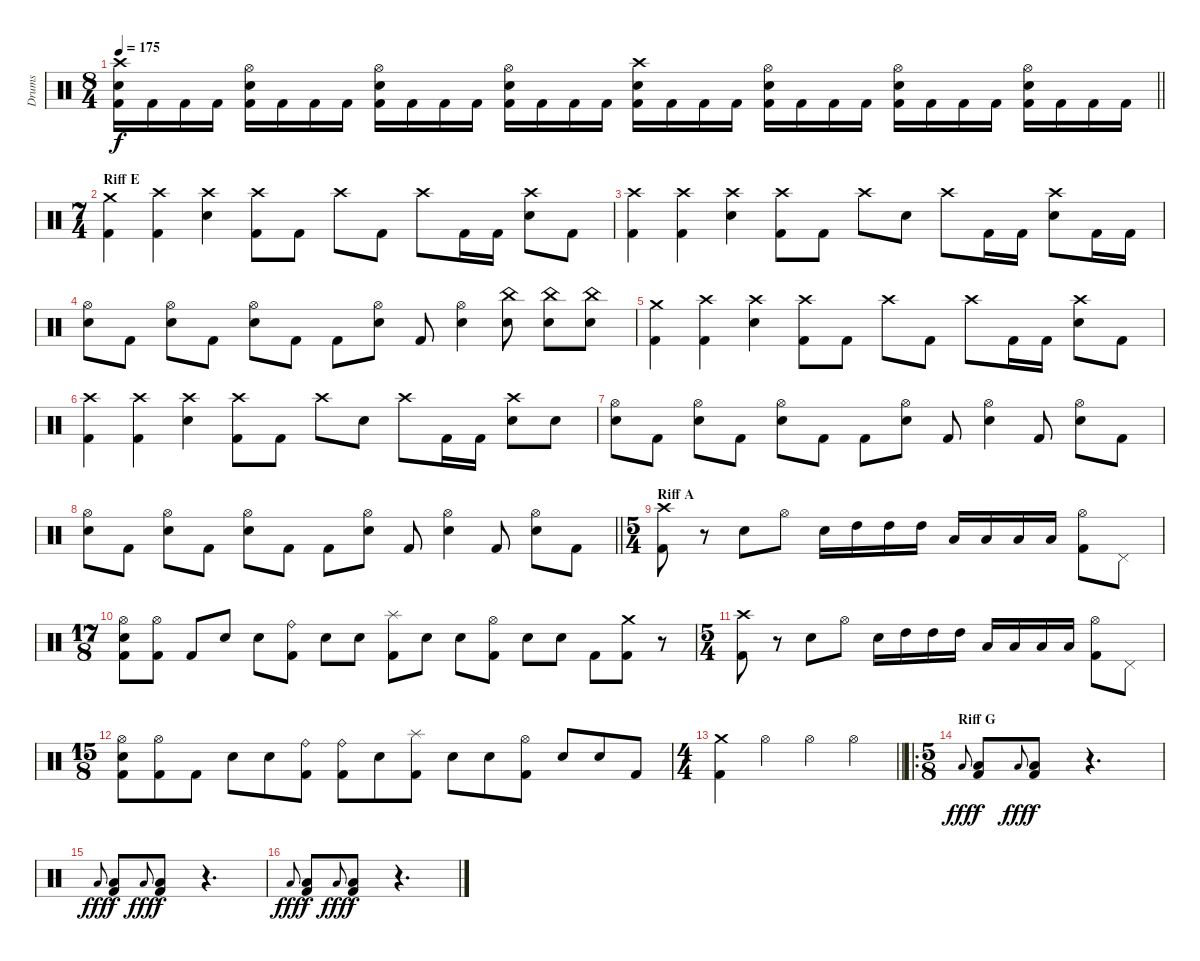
\track ("Drums" "Drums") {instrument percussion}
\staff {score}
\articulation defaults
\ts (8 4)
\tempo 175
\clef neutral
\barLineRight lightlight
\ks c
("Kick (hit) 2" "Snare (hit) 2" "Crash high (hit)").16{dy f} "Kick (hit) 2".16 "Kick (hit) 2".16 "Kick (hit) 2".16 ("Kick (hit) 2" "Snare (hit) 2" "Hi-Hat (open)").16 "Kick (hit) 2".16 "Kick (hit) 2".16 "Kick (hit) 2".16 ("Kick (hit) 2" "Hi-Hat (open)" "Snare (hit) 2").16 "Kick (hit) 2".16 "Kick (hit) 2".16 "Kick (hit) 2".16 ("Kick (hit) 2" "Hi-Hat (open)" "Snare (hit) 2").16 "Kick (hit) 2".16 "Kick (hit) 2".16 "Kick (hit) 2".16 ("Kick (hit) 2" "Crash high (hit)" "Snare (hit) 2").16 "Kick (hit) 2".16 "Kick (hit) 2".16 "Kick (hit) 2".16 ("Kick (hit) 2" "Snare (hit) 2" "Hi-Hat (open)").16 "Kick (hit) 2".16 "Kick (hit) 2".16 "Kick (hit) 2".16 ("Kick (hit) 2" "Hi-Hat (open)" "Snare (hit) 2").16 "Kick (hit) 2".16 "Kick (hit) 2".16 "Kick (hit) 2".16 ("Kick (hit) 2" "Snare (hit) 2" "Hi-Hat (open)").16 "Kick (hit) 2".16 "Kick (hit) 2".16 "Kick (hit) 2".16 |
\ts (7 4)
\section ("" "Riff E")
("Kick (hit) 2" "Crash medium (hit)").4 ("Kick (hit) 2" "Crash high (hit)").4 ("Crash high (hit)" "Snare (hit) 2").4 ("Crash high (hit)" "Kick (hit) 2").8 "Kick (hit) 2".8 "Crash high (hit)".8 "Kick (hit) 2".8 "Crash high (hit)".8 "Kick (hit) 2".16 "Kick (hit) 2".16 ("Snare (hit) 2" "Crash high (hit)").8 "Kick (hit) 2".8 |
("Kick (hit) 2" "Crash high (hit)").4 ("Kick (hit) 2" "Crash high (hit)").4 ("Crash high (hit)" "Snare (hit) 2").4 ("Kick (hit) 2" "Crash high (hit)").8 "Kick (hit) 2".8 "Crash high (hit)".8 "Snare (hit) 2".8 "Crash high (hit)".8 "Kick (hit) 2".16 "Kick (hit) 2".16 ("Snare (hit) 2" "Crash high (hit)").8 "Kick (hit) 2".16 "Kick (hit) 2".16 |
("Hi-Hat (open)" "Snare (hit) 2").8 "Kick (hit) 2".8 ("Snare (hit) 2" "Hi-Hat (open)").8 "Kick (hit) 2".8 ("Hi-Hat (open)" "Snare (hit) 2").8 "Kick (hit) 2".8 "Kick (hit) 2".8 ("Snare (hit) 2" "Hi-Hat (open)").8 "Kick (hit) 2".8 ("Snare (hit) 2" "Hi-Hat (open)").4 ("Snare (hit) 2" "China (hit)").8 ("China (hit)" "Snare (hit) 2").8 ("China (hit)" "Snare (hit) 2").8 |
("Kick (hit) 2" "Crash medium (hit)").4 ("Kick (hit) 2" "Crash high (hit)").4 ("Crash high (hit)" "Snare (hit) 2").4 ("Crash high (hit)" "Kick (hit) 2").8 "Kick (hit) 2".8 "Crash high (hit)".8 "Kick (hit) 2".8 "Crash high (hit)".8 "Kick (hit) 2".16 "Kick (hit) 2".16 ("Snare (hit) 2" "Crash high (hit)").8 "Kick (hit) 2".8 |
("Kick (hit) 2" "Crash high (hit)").4 ("Kick (hit) 2" "Crash high (hit)").4 ("Crash high (hit)" "Snare (hit) 2").4 ("Kick (hit) 2" "Crash high (hit)").8 "Kick (hit) 2".8 "Crash high (hit)".8 "Snare (hit) 2".8 "Crash high (hit)".8 "Kick (hit) 2".16 "Kick (hit) 2".16 ("Snare (hit) 2" "Crash high (hit)").8 "Snare (hit) 2".8 |
("Hi-Hat (open)" "Snare (hit) 2").8 "Kick (hit) 2".8 ("Snare (hit) 2" "Hi-Hat (open)").8 "Kick (hit) 2".8 ("Hi-Hat (open)" "Snare (hit) 2").8 "Kick (hit) 2".8 "Kick (hit) 2".8 ("Snare (hit) 2" "Hi-Hat (open)").8 "Kick (hit) 2".8 ("Snare (hit) 2" "Hi-Hat (open)").4 "Kick (hit) 2".8 ("Snare (hit) 2" "Hi-Hat (open)").8 "Kick (hit) 2".8 |
\barLineRight lightlight
("Hi-Hat (open)" "Snare (hit) 2").8 "Kick (hit) 2".8 ("Snare (hit) 2" "Hi-Hat (open)").8 "Kick (hit) 2".8 ("Hi-Hat (open)" "Snare (hit) 2").8 "Kick (hit) 2".8 "Kick (hit) 2".8 ("Snare (hit) 2" "Hi-Hat (open)").8 "Kick (hit) 2".8 ("Snare (hit) 2" "Hi-Hat (open)").4 "Kick (hit) 2".8 ("Snare (hit) 2" "Hi-Hat (open)").8 "Kick (hit) 2".8 |
\ts (5 4)
\section ("" "Riff A")
("Crash high (hit)" "Kick (hit) 2").8 r.8 "Snare (hit) 2".8 "Hi-Hat (open)".8 "Snare (hit) 2".16 "High Tom (hit)".16 "High Tom (hit)".16 "High Tom (hit)".16 "Low Tom (hit)".16 "Low Tom (hit)".16 "Low Tom (hit)".16 "Low Tom (hit)".16 ("Kick (hit) 2" "Hi-Hat (open)").8 "Pedal Hi-Hat (hit)".8 |
\ts (17 8)
("Snare (hit) 2" "Hi-Hat (open)" "Kick (hit) 2").8 ("Hi-Hat (open)" "Kick (hit) 2").8 "Kick (hit) 2".8 "Snare (hit) 2".8 "Snare (hit) 2".8 ("Kick (hit) 2" "Ride (bell)").8 "Snare (hit) 2".8 "Snare (hit) 2".8 ("Kick (hit) 2" "Splash (hit)").8 "Snare (hit) 2".8 "Snare (hit) 2".8 ("Kick (hit) 2" "Hi-Hat (open)").8 "Snare (hit) 2".8 "Snare (hit) 2".8 "Kick (hit) 2".8 ("Kick (hit) 2" "Crash medium (hit)").8 r.8 |
\ts (5 4)
("Crash high (hit)" "Kick (hit) 2").8 r.8 "Snare (hit) 2".8 "Hi-Hat (open)".8 "Snare (hit) 2".16 "High Tom (hit)".16 "High Tom (hit)".16 "High Tom (hit)".16 "Low Tom (hit)".16 "Low Tom (hit)".16 "Low Tom (hit)".16 "Low Tom (hit)".16 ("Kick (hit) 2" "Hi-Hat (open)").8 "Pedal Hi-Hat (hit)".8 |
\ts (15 8)
("Snare (hit) 2" "Hi-Hat (open)" "Kick (hit) 2").8 ("Hi-Hat (open)" "Kick (hit) 2").8 "Kick (hit) 2".8 "Snare (hit) 2".8 "Snare (hit) 2".8 ("Kick (hit) 2" "Ride (bell)").8 ("Kick (hit) 2" "Ride (bell)").8 "Snare (hit) 2".8 ("Kick (hit) 2" "Splash (hit)").8 "Snare (hit) 2".8 "Snare (hit) 2".8 ("Kick (hit) 2" "Hi-Hat (open)").8 "Snare (hit) 2".8 "Snare (hit) 2".8 "Kick (hit) 2".8 |
\ts (4 4)
\barLineRight lightlight
("Kick (hit) 2" "Crash medium (hit)").4 "Hi-Hat (open)".4 "Hi-Hat (open)".4 "Hi-Hat (open)".4 |
\ro
\ts (5 8)
\section ("" "Riff G")
"Low Floor Tom (hit)".8{gr onbeat dy fff} ("Low Floor Tom (hit)" "Kick (hit) 2").8{dy f} "Low Floor Tom (hit)".8{gr onbeat dy fff} ("Kick (hit) 2" "Low Floor Tom (hit)").8{dy f} r.4{d} |
"Low Floor Tom (hit)".8{gr onbeat dy fff} ("Low Floor Tom (hit)" "Kick (hit) 2").8{dy f} "Low Floor Tom (hit)".8{gr onbeat dy fff} ("Kick (hit) 2" "Low Floor Tom (hit)").8{dy f} r.4{d} |
"Low Floor Tom (hit)".8{gr onbeat dy fff} ("Low Floor Tom (hit)" "Kick (hit) 2").8{dy f} "Low Floor Tom (hit)".8{gr onbeat dy fff} ("Kick (hit) 2" "Low Floor Tom (hit)").8{dy f} r.4{d}
